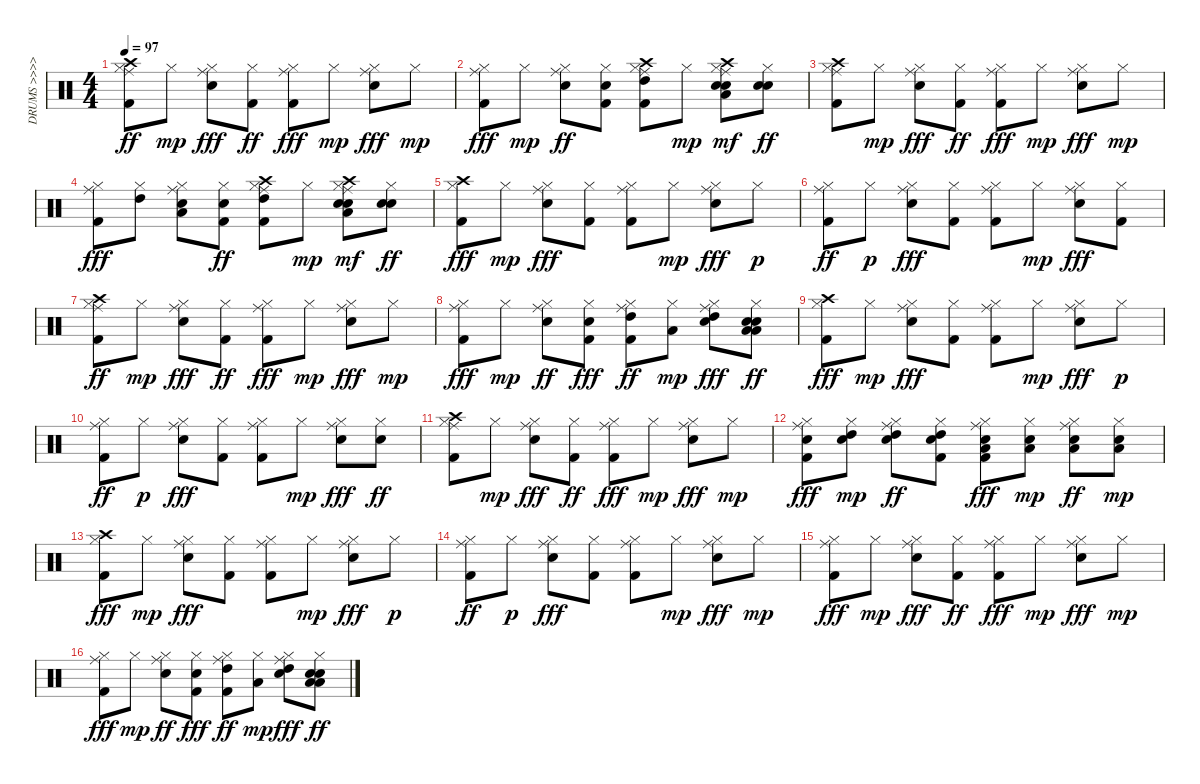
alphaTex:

\track ("DRUMS >>>>>>" "DRUMS >>>>") {instrument percussion}
\staff {score}
\articulation defaults
\ts (4 4)
\tempo 97
\clef neutral
\ks c
("Hi-Hat (closed)" "Ride (middle)" "Kick (hit) 2" "Crash high (hit)").8{dy ff} "Hi-Hat (closed)".8{dy mp} ("Hi-Hat (closed)" "Ride (middle)" "Snare (hit) 2").8{dy fff} ("Hi-Hat (closed)" "Kick (hit) 2").8{dy ff} ("Hi-Hat (closed)" "Ride (middle)" "Kick (hit) 2").8{dy fff} "Hi-Hat (closed)".8{dy mp} ("Hi-Hat (closed)" "Ride (middle)" "Snare (hit) 2").8{dy fff} "Hi-Hat (closed)".8{dy mp} |
("Hi-Hat (closed)" "Ride (middle)" "Kick (hit) 2").8{dy fff} "Hi-Hat (closed)".8{dy mp} ("Hi-Hat (closed)" "Ride (middle)" "Snare (hit) 2").8{dy ff} ("Hi-Hat (closed)" "Kick (hit) 2" "Snare (hit) 2").8 ("Hi-Hat (closed)" "Ride (middle)" "Kick (hit) 2" "Crash high (hit)" "High Tom (hit)").8 "Hi-Hat (closed)".8{dy mp} ("Hi-Hat (closed)" "Ride (middle)" "Snare (hit) 2" "Crash high (hit)" "Low Tom (hit)" "Snare (hit) 2").8{dy mf} ("Hi-Hat (closed)" "Snare (hit) 2" "Snare (hit) 2").8{dy ff} |
("Hi-Hat (closed)" "Ride (middle)" "Kick (hit) 2" "Crash high (hit)").8 "Hi-Hat (closed)".8{dy mp} ("Hi-Hat (closed)" "Ride (middle)" "Snare (hit) 2").8{dy fff} ("Hi-Hat (closed)" "Kick (hit) 2").8{dy ff} ("Hi-Hat (closed)" "Ride (middle)" "Kick (hit) 2").8{dy fff} "Hi-Hat (closed)".8{dy mp} ("Hi-Hat (closed)" "Ride (middle)" "Snare (hit) 2").8{dy fff} "Hi-Hat (closed)".8{dy mp} |
("Hi-Hat (closed)" "Ride (middle)" "Kick (hit) 2").8{dy fff} ("Hi-Hat (closed)" "High Tom (hit)").8 ("Hi-Hat (closed)" "Ride (middle)" "Snare (hit) 2" "Low Tom (hit)").8 ("Hi-Hat (closed)" "Kick (hit) 2" "Snare (hit) 2").8{dy ff} ("Hi-Hat (closed)" "Ride (middle)" "Kick (hit) 2" "Crash high (hit)" "High Tom (hit)").8 "Hi-Hat (closed)".8{dy mp} ("Hi-Hat (closed)" "Ride (middle)" "Snare (hit) 2" "Crash high (hit)" "Low Tom (hit)" "Snare (hit) 2").8{dy mf} ("Hi-Hat (closed)" "Snare (hit) 2" "Snare (hit) 2").8{dy ff} |
("Hi-Hat (closed)" "Crash high (hit)" "Kick (hit) 2").8{dy fff} "Hi-Hat (closed)".8{dy mp} ("Hi-Hat (closed)" "Ride (middle)" "Snare (hit) 2").8{dy fff} ("Hi-Hat (closed)" "Kick (hit) 2").8 ("Hi-Hat (closed)" "Ride (middle)" "Kick (hit) 2").8 "Hi-Hat (closed)".8{dy mp} ("Hi-Hat (closed)" "Ride (middle)" "Snare (hit) 2").8{dy fff} "Hi-Hat (closed)".8{dy p} |
("Hi-Hat (closed)" "Ride (middle)" "Kick (hit) 2").8{dy ff} "Hi-Hat (closed)".8{dy p} ("Hi-Hat (closed)" "Ride (middle)" "Snare (hit) 2").8{dy fff} ("Hi-Hat (closed)" "Kick (hit) 2").8 ("Hi-Hat (closed)" "Ride (middle)" "Kick (hit) 2").8 "Hi-Hat (closed)".8{dy mp} ("Hi-Hat (closed)" "Ride (middle)" "Snare (hit) 2").8{dy fff} ("Hi-Hat (closed)" "Kick (hit) 2").8 |
("Hi-Hat (closed)" "Ride (middle)" "Kick (hit) 2" "Crash high (hit)").8{dy ff} "Hi-Hat (closed)".8{dy mp} ("Hi-Hat (closed)" "Ride (middle)" "Snare (hit) 2").8{dy fff} ("Hi-Hat (closed)" "Kick (hit) 2").8{dy ff} ("Hi-Hat (closed)" "Ride (middle)" "Kick (hit) 2").8{dy fff} "Hi-Hat (closed)".8{dy mp} ("Hi-Hat (closed)" "Ride (middle)" "Snare (hit) 2").8{dy fff} "Hi-Hat (closed)".8{dy mp} |
("Hi-Hat (closed)" "Ride (middle)" "Kick (hit) 2").8{dy fff} "Hi-Hat (closed)".8{dy mp} ("Hi-Hat (closed)" "Ride (middle)" "Snare (hit) 2").8{dy ff} ("Hi-Hat (closed)" "Kick (hit) 2" "Snare (hit) 2").8{dy fff} ("Hi-Hat (closed)" "Ride (middle)" "Kick (hit) 2" "High Tom (hit)").8{dy ff} ("Low Tom (hit)" "Hi-Hat (closed)").8{dy mp} ("High Tom (hit)" "Hi-Hat (closed)" "Ride (middle)" "Snare (hit) 2").8{dy fff} ("Snare (hit) 2" "Low Tom (hit)" "Hi-Hat (closed)" "Snare (hit) 2" "Low Floor Tom (hit)").8{dy ff} |
("Hi-Hat (closed)" "Crash high (hit)" "Kick (hit) 2").8{dy fff} "Hi-Hat (closed)".8{dy mp} ("Hi-Hat (closed)" "Ride (middle)" "Snare (hit) 2").8{dy fff} ("Hi-Hat (closed)" "Kick (hit) 2").8 ("Hi-Hat (closed)" "Ride (middle)" "Kick (hit) 2").8 "Hi-Hat (closed)".8{dy mp} ("Hi-Hat (closed)" "Ride (middle)" "Snare (hit) 2").8{dy fff} "Hi-Hat (closed)".8{dy p} |
("Hi-Hat (closed)" "Ride (middle)" "Kick (hit) 2").8{dy ff} "Hi-Hat (closed)".8{dy p} ("Hi-Hat (closed)" "Ride (middle)" "Snare (hit) 2").8{dy fff} ("Hi-Hat (closed)" "Kick (hit) 2").8 ("Hi-Hat (closed)" "Ride (middle)" "Kick (hit) 2").8 "Hi-Hat (closed)".8{dy mp} ("Hi-Hat (closed)" "Ride (middle)" "Snare (hit) 2").8{dy fff} ("Hi-Hat (closed)" "Snare (hit) 2").8{dy ff} |
("Hi-Hat (closed)" "Ride (middle)" "Kick (hit) 2" "Crash high (hit)").8 "Hi-Hat (closed)".8{dy mp} ("Hi-Hat (closed)" "Ride (middle)" "Snare (hit) 2").8{dy fff} ("Hi-Hat (closed)" "Kick (hit) 2").8{dy ff} ("Hi-Hat (closed)" "Ride (middle)" "Kick (hit) 2").8{dy fff} "Hi-Hat (closed)".8{dy mp} ("Hi-Hat (closed)" "Ride (middle)" "Snare (hit) 2").8{dy fff} "Hi-Hat (closed)".8{dy mp} |
("Snare (hit) 2" "Hi-Hat (closed)" "Ride (middle)" "Kick (hit) 2").8{dy fff} ("Snare (hit) 2" "High Tom (hit)" "Hi-Hat (closed)").8{dy mp} ("Snare (hit) 2" "High Tom (hit)" "Hi-Hat (closed)" "Ride (middle)").8{dy ff} ("Snare (hit) 2" "High Tom (hit)" "Hi-Hat (closed)" "Kick (hit) 2").8 ("Snare (hit) 2" "Low Tom (hit)" "Hi-Hat (closed)" "Ride (middle)" "Kick (hit) 2").8{dy fff} ("Snare (hit) 2" "Low Tom (hit)" "Hi-Hat (closed)").8{dy mp} ("Snare (hit) 2" "Low Floor Tom (hit)" "Hi-Hat (closed)" "Ride (middle)").8{dy ff} ("Snare (hit) 2" "Low Floor Tom (hit)" "Hi-Hat (closed)").8{dy mp} |
("Hi-Hat (closed)" "Crash high (hit)" "Kick (hit) 2").8{dy fff} "Hi-Hat (closed)".8{dy mp} ("Hi-Hat (closed)" "Ride (middle)" "Snare (hit) 2").8{dy fff} ("Hi-Hat (closed)" "Kick (hit) 2").8 ("Hi-Hat (closed)" "Ride (middle)" "Kick (hit) 2").8 "Hi-Hat (closed)".8{dy mp} ("Hi-Hat (closed)" "Ride (middle)" "Snare (hit) 2").8{dy fff} "Hi-Hat (closed)".8{dy p} |
("Hi-Hat (closed)" "Ride (middle)" "Kick (hit) 2").8{dy ff} "Hi-Hat (closed)".8{dy p} ("Hi-Hat (closed)" "Ride (middle)" "Snare (hit) 2").8{dy fff} ("Hi-Hat (closed)" "Kick (hit) 2").8 ("Hi-Hat (closed)" "Ride (middle)" "Kick (hit) 2").8 "Hi-Hat (closed)".8{dy mp} ("Hi-Hat (closed)" "Ride (middle)" "Snare (hit) 2").8{dy fff} "Hi-Hat (closed)".8{dy mp} |
("Hi-Hat (closed)" "Ride (middle)" "Kick (hit) 2").8{dy fff} "Hi-Hat (closed)".8{dy mp} ("Hi-Hat (closed)" "Ride (middle)" "Snare (hit) 2").8{dy fff} ("Hi-Hat (closed)" "Kick (hit) 2").8{dy ff} ("Hi-Hat (closed)" "Ride (middle)" "Kick (hit) 2").8{dy fff} "Hi-Hat (closed)".8{dy mp} ("Hi-Hat (closed)" "Ride (middle)" "Snare (hit) 2").8{dy fff} "Hi-Hat (closed)".8{dy mp} |
("Hi-Hat (closed)" "Ride (middle)" "Kick (hit) 2").8{dy fff} "Hi-Hat (closed)".8{dy mp} ("Hi-Hat (closed)" "Ride (middle)" "Snare (hit) 2").8{dy ff} ("Hi-Hat (closed)" "Kick (hit) 2" "Snare (hit) 2").8{dy fff} ("Hi-Hat (closed)" "Ride (middle)" "Kick (hit) 2" "High Tom (hit)").8{dy ff} ("Low Tom (hit)" "Hi-Hat (closed)").8{dy mp} ("High Tom (hit)" "Hi-Hat (closed)" "Ride (middle)" "Snare (hit) 2").8{dy fff} ("Snare (hit) 2" "Low Tom (hit)" "Hi-Hat (closed)" "Snare (hit) 2" "Low Floor Tom (hit)").8{dy ff}
